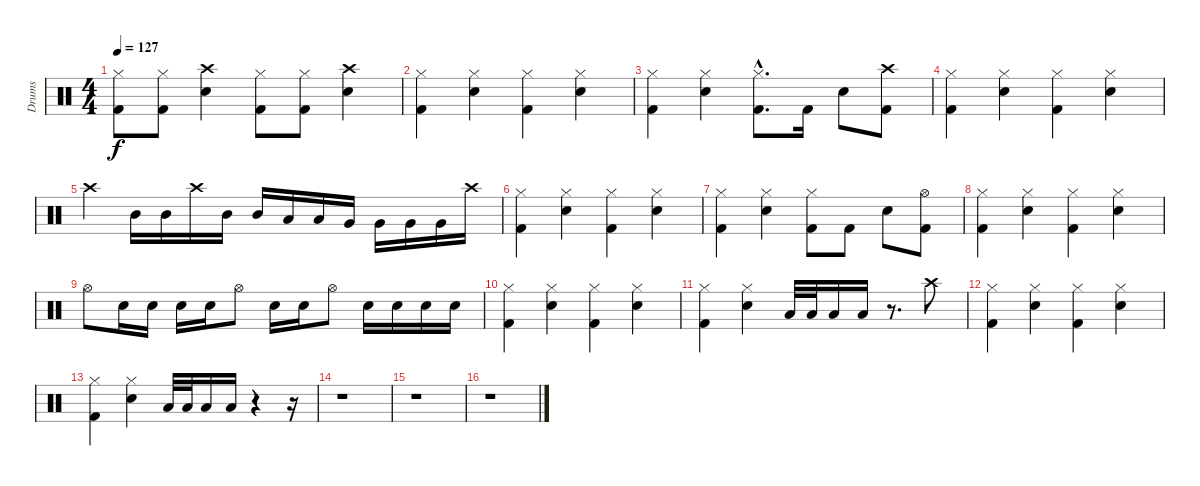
\track ("Drums" "Drums") {instrument percussion}
\staff {score}
\articulation defaults
\ts (4 4)
\tempo 127
\clef neutral
\ks c
("Hi-Hat (closed)" "Kick (hit) 2").8{dy f} ("Hi-Hat (closed)" "Kick (hit) 2").8 ("Crash high (hit)" "Snare (hit) 2").4 ("Hi-Hat (closed)" "Kick (hit) 2").8 ("Hi-Hat (closed)" "Kick (hit) 2").8 ("Crash high (hit)" "Snare (hit) 2").4 |
("Hi-Hat (closed)" "Kick (hit) 2").4 ("Hi-Hat (closed)" "Snare (hit) 2").4 ("Hi-Hat (closed)" "Kick (hit) 2").4 ("Hi-Hat (closed)" "Snare (hit) 2").4 |
("Hi-Hat (closed)" "Kick (hit) 2").4 ("Hi-Hat (closed)" "Snare (hit) 2").4 ("Hi-Hat (closed)" "Kick (hit) 2"{hac}).8{d} "Kick (hit) 2".16 "Snare (hit) 2".8 ("Crash high (hit)" "Kick (hit) 2").8 |
("Hi-Hat (closed)" "Kick (hit) 2").4 ("Hi-Hat (closed)" "Snare (hit) 2").4 ("Hi-Hat (closed)" "Kick (hit) 2").4 ("Hi-Hat (closed)" "Snare (hit) 2").4 |
"Crash high (hit)".4 "Mid Tom (hit)".16 "Mid Tom (hit)".16 "Crash high (hit)".16 "Mid Tom (hit)".16 "Mid Tom (hit)".16 "Low Tom (hit)".16 "Low Tom (hit)".16 "Very Low Tom (hit)".16 "Very Low Tom (hit)".16 "Very Low Tom (hit)".16 "Very Low Tom (hit)".16 "Crash high (hit)".16 |
("Hi-Hat (closed)" "Kick (hit) 2").4 ("Hi-Hat (closed)" "Snare (hit) 2").4 ("Hi-Hat (closed)" "Kick (hit) 2").4 ("Hi-Hat (closed)" "Snare (hit) 2").4 |
("Hi-Hat (closed)" "Kick (hit) 2").4 ("Hi-Hat (closed)" "Snare (hit) 2").4 ("Hi-Hat (closed)" "Kick (hit) 2").8 "Kick (hit) 2".8 "Snare (hit) 2".8 ("Hi-Hat (open)" "Kick (hit) 2").8 |
("Hi-Hat (closed)" "Kick (hit) 2").4 ("Hi-Hat (closed)" "Snare (hit) 2").4 ("Hi-Hat (closed)" "Kick (hit) 2").4 ("Hi-Hat (closed)" "Snare (hit) 2").4 |
"Hi-Hat (open)".8 "Snare (hit) 2".16 "Snare (hit) 2".16 "Snare (hit) 2".16 "Snare (hit) 2".16 "Hi-Hat (open)".8 "Snare (hit) 2".16 "Snare (hit) 2".16 "Hi-Hat (open)".8 "Snare (hit) 2".16 "Snare (hit) 2".16 "Snare (hit) 2".16 "Snare (hit) 2".16 |
("Hi-Hat (closed)" "Kick (hit) 2").4 ("Hi-Hat (closed)" "Snare (hit) 2").4 ("Hi-Hat (closed)" "Kick (hit) 2").4 ("Hi-Hat (closed)" "Snare (hit) 2").4 |
("Hi-Hat (closed)" "Kick (hit) 2").4 ("Hi-Hat (closed)" "Snare (hit) 2").4 "Low Tom (hit)".32 "Low Tom (hit)".32 "Low Tom (hit)".16 "Low Tom (hit)".16 r.8{d} "Crash high (hit)".8 |
("Hi-Hat (closed)" "Kick (hit) 2").4 ("Hi-Hat (closed)" "Snare (hit) 2").4 ("Hi-Hat (closed)" "Kick (hit) 2").4 ("Hi-Hat (closed)" "Snare (hit) 2").4 |
("Hi-Hat (closed)" "Kick (hit) 2").4 ("Hi-Hat (closed)" "Snare (hit) 2").4 "Low Tom (hit)".32 "Low Tom (hit)".32 "Low Tom (hit)".16 "Low Tom (hit)".16 r.4 r.16 |
r.1 |
r.1 |
r.1
